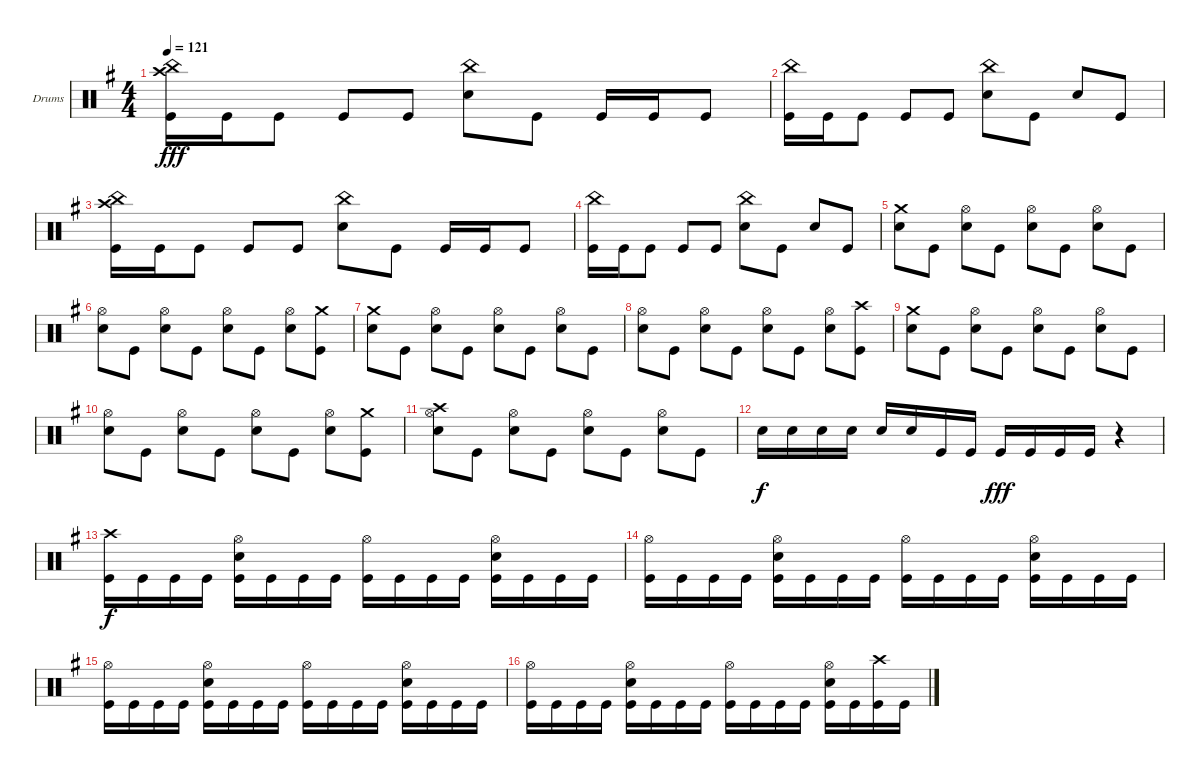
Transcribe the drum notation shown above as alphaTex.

\bracketExtendMode groupsimilarinstruments
\firstSystemTrackNameOrientation horizontal
\otherSystemsTrackNameOrientation horizontal
\track ("Drumkit" "Drums") {instrument percussion}
\staff {score}
\articulation defaults
\ts (4 4)
\tempo 121
\clef neutral
\scale
0.333333
\ks g
("China (hit)" "Kick (hit)" "Crash high (hit)").16{dy fff} "Kick (hit)".16 "Kick (hit)".8 "Kick (hit)".8 "Kick (hit)".8 ("China (hit)" "Snare (hit) 2").8 "Kick (hit)".8 "Kick (hit)".16 "Kick (hit)".16 "Kick (hit)".8 |
\scale
0.333333 ("China (hit)" "Kick (hit)").16 "Kick (hit)".16 "Kick (hit)".8 "Kick (hit)".8 "Kick (hit)".8 ("China (hit)" "Snare (hit) 2").8 "Kick (hit)".8 "Snare (hit) 2".8 "Kick (hit)".8 |
\scale
0.333333 ("China (hit)" "Kick (hit)" "Crash high (hit)").16 "Kick (hit)".16 "Kick (hit)".8 "Kick (hit)".8 "Kick (hit)".8 ("China (hit)" "Snare (hit) 2").8 "Kick (hit)".8 "Kick (hit)".16 "Kick (hit)".16 "Kick (hit)".8 |
\scale
0.333333 ("China (hit)" "Kick (hit)").16 "Kick (hit)".16 "Kick (hit)".8 "Kick (hit)".8 "Kick (hit)".8 ("China (hit)" "Snare (hit) 2").8 "Kick (hit)".8 "Snare (hit) 2".8 "Kick (hit)".8 |
\scale
0.333333 ("Snare (hit) 2" "Crash medium (hit)").8 "Kick (hit)".8 ("Snare (hit) 2" "Hi-Hat (open)").8 "Kick (hit)".8 ("Snare (hit) 2" "Hi-Hat (open)").8 "Kick (hit)".8 ("Snare (hit) 2" "Hi-Hat (open)").8 "Kick (hit)".8 |
\scale
0.333333 ("Snare (hit) 2" "Hi-Hat (open)").8 "Kick (hit)".8 ("Snare (hit) 2" "Hi-Hat (open)").8 "Kick (hit)".8 ("Snare (hit) 2" "Hi-Hat (open)").8 "Kick (hit)".8 ("Snare (hit) 2" "Hi-Hat (open)").8 ("Kick (hit)" "Crash medium (hit)").8 |
\scale
0.333333 ("Snare (hit) 2" "Crash medium (hit)").8 "Kick (hit)".8 ("Snare (hit) 2" "Hi-Hat (open)").8 "Kick (hit)".8 ("Snare (hit) 2" "Hi-Hat (open)").8 "Kick (hit)".8 ("Snare (hit) 2" "Hi-Hat (open)").8 "Kick (hit)".8 |
\scale
0.333333 ("Snare (hit) 2" "Hi-Hat (open)").8 "Kick (hit)".8 ("Snare (hit) 2" "Hi-Hat (open)").8 "Kick (hit)".8 ("Snare (hit) 2" "Hi-Hat (open)").8 "Kick (hit)".8 ("Snare (hit) 2" "Hi-Hat (open)").8 ("Kick (hit)" "Crash high (hit)").8 |
\scale
0.333333 ("Snare (hit) 2" "Crash medium (hit)").8 "Kick (hit)".8 ("Snare (hit) 2" "Hi-Hat (open)").8 "Kick (hit)".8 ("Snare (hit) 2" "Hi-Hat (open)").8 "Kick (hit)".8 ("Snare (hit) 2" "Hi-Hat (open)").8 "Kick (hit)".8 |
\scale
0.333333 ("Snare (hit) 2" "Hi-Hat (open)").8 "Kick (hit)".8 ("Snare (hit) 2" "Hi-Hat (open)").8 "Kick (hit)".8 ("Snare (hit) 2" "Hi-Hat (open)").8 "Kick (hit)".8 ("Snare (hit) 2" "Hi-Hat (open)").8 ("Kick (hit)" "Crash medium (hit)").8 |
\scale
0.333333 ("Snare (hit) 2" "Hi-Hat (open)" "Crash high (hit)").8 "Kick (hit)".8 ("Snare (hit) 2" "Hi-Hat (open)").8 "Kick (hit)".8 ("Snare (hit) 2" "Hi-Hat (open)").8 "Kick (hit)".8 ("Snare (hit) 2" "Hi-Hat (open)").8 "Kick (hit)".8 |
\scale
0.333333 "Snare (hit) 2".16{dy f} "Snare (hit) 2".16 "Snare (hit) 2".16 "Snare (hit) 2".16 "Snare (hit) 2".16 "Snare (hit) 2".16 "Kick (hit)".16 "Kick (hit)".16 "Kick (hit)".16{dy fff} "Kick (hit)".16 "Kick (hit)".16 "Kick (hit)".16 r.4 |
\scale
0.333333 ("Crash high (hit)" "Kick (hit)").16{dy f} "Kick (hit)".16 "Kick (hit)".16 "Kick (hit)".16 ("Hi-Hat (open)" "Snare (hit) 2" "Kick (hit)").16 "Kick (hit)".16 "Kick (hit)".16 "Kick (hit)".16 ("Hi-Hat (open)" "Kick (hit)").16 "Kick (hit)".16 "Kick (hit)".16 "Kick (hit)".16 ("Hi-Hat (open)" "Snare (hit) 2" "Kick (hit)").16 "Kick (hit)".16 "Kick (hit)".16 "Kick (hit)".16 |
\scale
0.333333 ("Hi-Hat (open)" "Kick (hit)").16 "Kick (hit)".16 "Kick (hit)".16 "Kick (hit)".16 ("Hi-Hat (open)" "Snare (hit) 2" "Kick (hit)").16 "Kick (hit)".16 "Kick (hit)".16 "Kick (hit)".16 ("Hi-Hat (open)" "Kick (hit)").16 "Kick (hit)".16 "Kick (hit)".16 "Kick (hit)".16 ("Hi-Hat (open)" "Snare (hit) 2" "Kick (hit)").16 "Kick (hit)".16 "Kick (hit)".16 "Kick (hit)".16 |
\scale
0.333333 ("Hi-Hat (open)" "Kick (hit)").16 "Kick (hit)".16 "Kick (hit)".16 "Kick (hit)".16 ("Hi-Hat (open)" "Snare (hit) 2" "Kick (hit)").16 "Kick (hit)".16 "Kick (hit)".16 "Kick (hit)".16 ("Hi-Hat (open)" "Kick (hit)").16 "Kick (hit)".16 "Kick (hit)".16 "Kick (hit)".16 ("Hi-Hat (open)" "Snare (hit) 2" "Kick (hit)").16 "Kick (hit)".16 "Kick (hit)".16 "Kick (hit)".16 |
\scale
0.333333 ("Hi-Hat (open)" "Kick (hit)").16 "Kick (hit)".16 "Kick (hit)".16 "Kick (hit)".16 ("Hi-Hat (open)" "Snare (hit) 2" "Kick (hit)").16 "Kick (hit)".16 "Kick (hit)".16 "Kick (hit)".16 ("Hi-Hat (open)" "Kick (hit)").16 "Kick (hit)".16 "Kick (hit)".16 "Kick (hit)".16 ("Hi-Hat (open)" "Snare (hit) 2" "Kick (hit)").16 "Kick (hit)".16 ("Kick (hit)" "Crash high (hit)").16 "Kick (hit)".16
